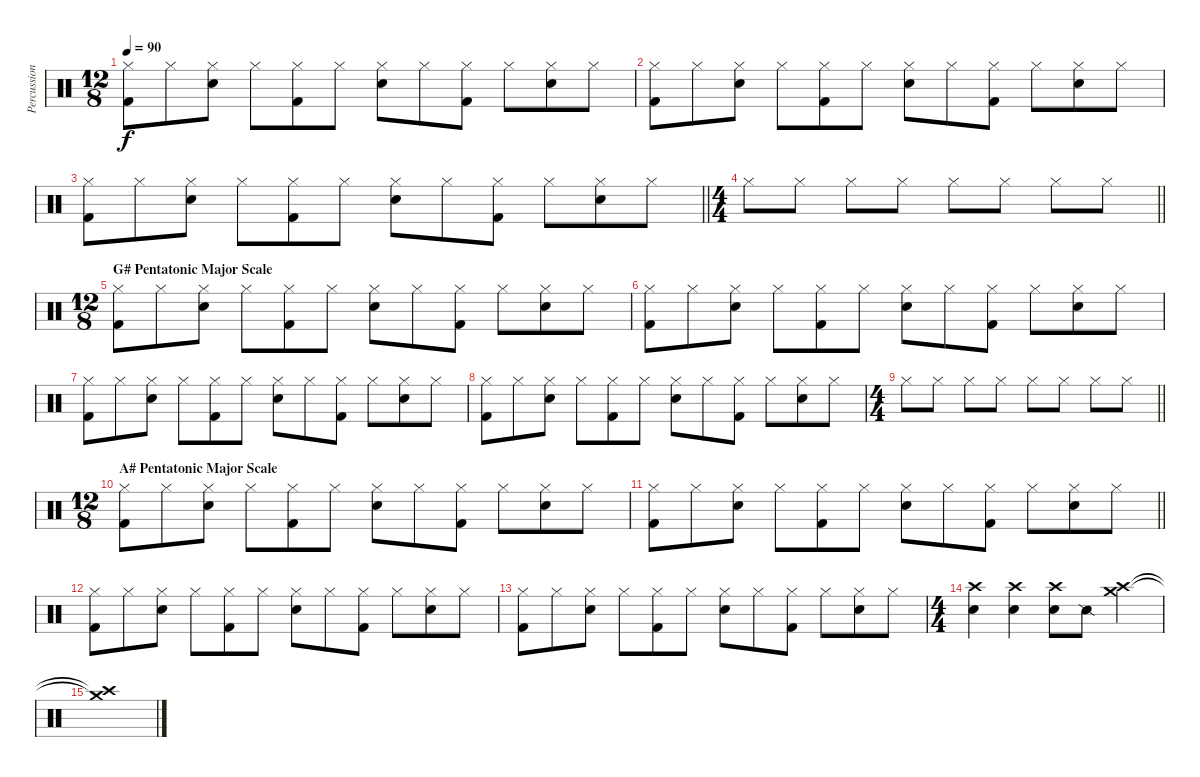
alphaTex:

\track ("Percussion" "Percussion") {instrument percussion}
\staff {score}
\articulation defaults
\ts (12 8)
\tempo 90
\clef neutral
\ks c
("Kick (hit) 2" "Hi-Hat (closed)").8{dy f} "Hi-Hat (closed)".8 ("Snare (hit) 2" "Hi-Hat (closed)").8 "Hi-Hat (closed)".8 ("Kick (hit) 2" "Hi-Hat (closed)").8 "Hi-Hat (closed)".8 ("Snare (hit) 2" "Hi-Hat (closed)").8 "Hi-Hat (closed)".8 ("Kick (hit) 2" "Hi-Hat (closed)").8 "Hi-Hat (closed)".8 ("Snare (hit) 2" "Hi-Hat (closed)").8 "Hi-Hat (closed)".8 |
("Kick (hit) 2" "Hi-Hat (closed)").8 "Hi-Hat (closed)".8 ("Snare (hit) 2" "Hi-Hat (closed)").8 "Hi-Hat (closed)".8 ("Kick (hit) 2" "Hi-Hat (closed)").8 "Hi-Hat (closed)".8 ("Snare (hit) 2" "Hi-Hat (closed)").8 "Hi-Hat (closed)".8 ("Kick (hit) 2" "Hi-Hat (closed)").8 "Hi-Hat (closed)".8 ("Snare (hit) 2" "Hi-Hat (closed)").8 "Hi-Hat (closed)".8 |
\barLineRight lightlight
("Kick (hit) 2" "Hi-Hat (closed)").8 "Hi-Hat (closed)".8 ("Snare (hit) 2" "Hi-Hat (closed)").8 "Hi-Hat (closed)".8 ("Kick (hit) 2" "Hi-Hat (closed)").8 "Hi-Hat (closed)".8 ("Snare (hit) 2" "Hi-Hat (closed)").8 "Hi-Hat (closed)".8 ("Kick (hit) 2" "Hi-Hat (closed)").8 "Hi-Hat (closed)".8 ("Snare (hit) 2" "Hi-Hat (closed)").8 "Hi-Hat (closed)".8 |
\ts (4 4)
\barLineRight lightlight "Hi-Hat (closed)".8 "Hi-Hat (closed)".8 "Hi-Hat (closed)".8 "Hi-Hat (closed)".8 "Hi-Hat (closed)".8 "Hi-Hat (closed)".8 "Hi-Hat (closed)".8 "Hi-Hat (closed)".8
|
\ts (12 8)
\section ("" "G# Pentatonic Major Scale")
("Kick (hit) 2" "Hi-Hat (closed)").8 "Hi-Hat (closed)".8 ("Snare (hit) 2" "Hi-Hat (closed)").8 "Hi-Hat (closed)".8 ("Kick (hit) 2" "Hi-Hat (closed)").8 "Hi-Hat (closed)".8 ("Snare (hit) 2" "Hi-Hat (closed)").8 "Hi-Hat (closed)".8 ("Kick (hit) 2" "Hi-Hat (closed)").8 "Hi-Hat (closed)".8 ("Snare (hit) 2" "Hi-Hat (closed)").8 "Hi-Hat (closed)".8 |
("Kick (hit) 2" "Hi-Hat (closed)").8 "Hi-Hat (closed)".8 ("Snare (hit) 2" "Hi-Hat (closed)").8 "Hi-Hat (closed)".8 ("Kick (hit) 2" "Hi-Hat (closed)").8 "Hi-Hat (closed)".8 ("Snare (hit) 2" "Hi-Hat (closed)").8 "Hi-Hat (closed)".8 ("Kick (hit) 2" "Hi-Hat (closed)").8 "Hi-Hat (closed)".8 ("Snare (hit) 2" "Hi-Hat (closed)").8 "Hi-Hat (closed)".8 |
("Kick (hit) 2" "Hi-Hat (closed)").8 "Hi-Hat (closed)".8 ("Snare (hit) 2" "Hi-Hat (closed)").8 "Hi-Hat (closed)".8 ("Kick (hit) 2" "Hi-Hat (closed)").8 "Hi-Hat (closed)".8 ("Snare (hit) 2" "Hi-Hat (closed)").8 "Hi-Hat (closed)".8 ("Kick (hit) 2" "Hi-Hat (closed)").8 "Hi-Hat (closed)".8 ("Snare (hit) 2" "Hi-Hat (closed)").8 "Hi-Hat (closed)".8 |
("Kick (hit) 2" "Hi-Hat (closed)").8 "Hi-Hat (closed)".8 ("Snare (hit) 2" "Hi-Hat (closed)").8 "Hi-Hat (closed)".8 ("Kick (hit) 2" "Hi-Hat (closed)").8 "Hi-Hat (closed)".8 ("Snare (hit) 2" "Hi-Hat (closed)").8 "Hi-Hat (closed)".8 ("Kick (hit) 2" "Hi-Hat (closed)").8 "Hi-Hat (closed)".8 ("Snare (hit) 2" "Hi-Hat (closed)").8 "Hi-Hat (closed)".8 |
\ts (4 4)
\barLineRight lightlight "Hi-Hat (closed)".8 "Hi-Hat (closed)".8 "Hi-Hat (closed)".8 "Hi-Hat (closed)".8 "Hi-Hat (closed)".8 "Hi-Hat (closed)".8 "Hi-Hat (closed)".8 "Hi-Hat (closed)".8
|
\ts (12 8)
\section ("" "A# Pentatonic Major Scale")
("Kick (hit) 2" "Hi-Hat (closed)").8 "Hi-Hat (closed)".8 ("Snare (hit) 2" "Hi-Hat (closed)").8 "Hi-Hat (closed)".8 ("Kick (hit) 2" "Hi-Hat (closed)").8 "Hi-Hat (closed)".8 ("Snare (hit) 2" "Hi-Hat (closed)").8 "Hi-Hat (closed)".8 ("Kick (hit) 2" "Hi-Hat (closed)").8 "Hi-Hat (closed)".8 ("Snare (hit) 2" "Hi-Hat (closed)").8 "Hi-Hat (closed)".8 |
\barLineRight lightlight
("Kick (hit) 2" "Hi-Hat (closed)").8 "Hi-Hat (closed)".8 ("Snare (hit) 2" "Hi-Hat (closed)").8 "Hi-Hat (closed)".8 ("Kick (hit) 2" "Hi-Hat (closed)").8 "Hi-Hat (closed)".8 ("Snare (hit) 2" "Hi-Hat (closed)").8 "Hi-Hat (closed)".8 ("Kick (hit) 2" "Hi-Hat (closed)").8 "Hi-Hat (closed)".8 ("Snare (hit) 2" "Hi-Hat (closed)").8 "Hi-Hat (closed)".8 |
("Kick (hit) 2" "Hi-Hat (closed)").8 "Hi-Hat (closed)".8 ("Snare (hit) 2" "Hi-Hat (closed)").8 "Hi-Hat (closed)".8 ("Kick (hit) 2" "Hi-Hat (closed)").8 "Hi-Hat (closed)".8 ("Snare (hit) 2" "Hi-Hat (closed)").8 "Hi-Hat (closed)".8 ("Kick (hit) 2" "Hi-Hat (closed)").8 "Hi-Hat (closed)".8 ("Snare (hit) 2" "Hi-Hat (closed)").8 "Hi-Hat (closed)".8 |
("Kick (hit) 2" "Hi-Hat (closed)").8 "Hi-Hat (closed)".8 ("Snare (hit) 2" "Hi-Hat (closed)").8 "Hi-Hat (closed)".8 ("Kick (hit) 2" "Hi-Hat (closed)").8 "Hi-Hat (closed)".8 ("Snare (hit) 2" "Hi-Hat (closed)").8 "Hi-Hat (closed)".8 ("Kick (hit) 2" "Hi-Hat (closed)").8 "Hi-Hat (closed)".8 ("Snare (hit) 2" "Hi-Hat (closed)").8 "Hi-Hat (closed)".8 |
\ts (4 4)
("Crash high (hit)" "Snare (hit) 2").4 ("Crash high (hit)" "Snare (hit) 2").4 ("Crash high (hit)" "Snare (hit) 2").8 "Snare (side stick) 2".8 ("Crash high (hit)" "Crash medium (hit)").4 |
("Crash high (hit)"{t} "Crash medium (hit)"{t}).1
